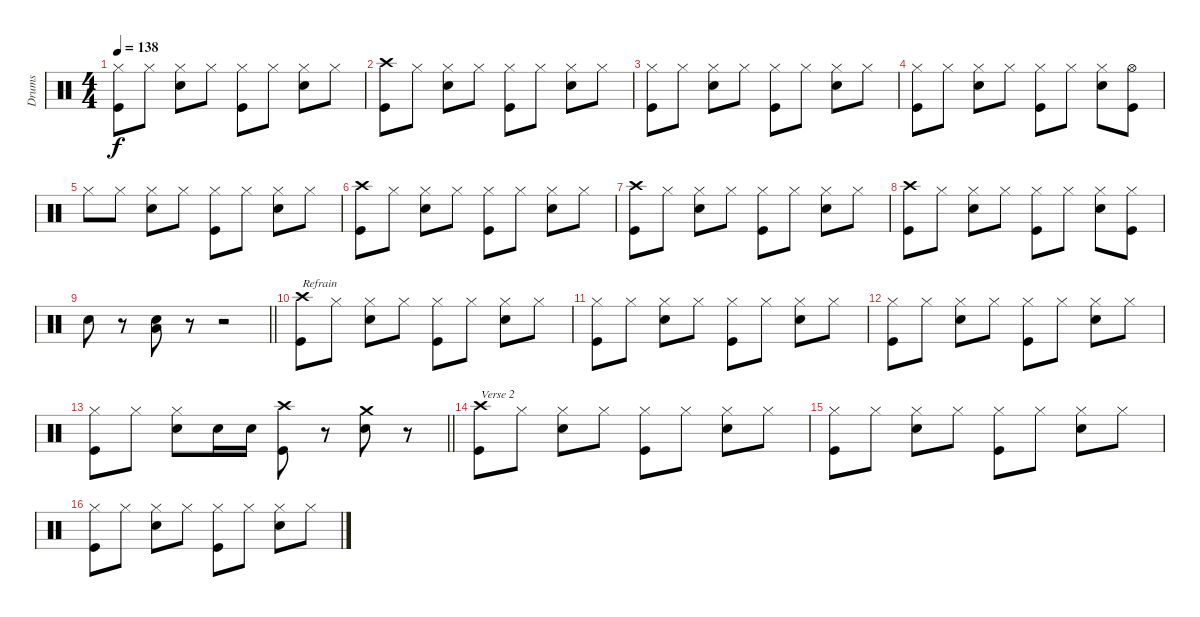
\track ("Drums" "Drums") {instrument percussion}
\staff {score}
\articulation defaults
\ts (4 4)
\tempo 138
\clef neutral
\ks c
("Kick (hit)" "Hi-Hat (closed)").8{dy f} "Hi-Hat (closed)".8 ("Electric Snare (hit)" "Hi-Hat (closed)").8 "Hi-Hat (closed)".8 ("Kick (hit)" "Hi-Hat (closed)").8 "Hi-Hat (closed)".8 ("Electric Snare (hit)" "Hi-Hat (closed)").8 "Hi-Hat (closed)".8 |
("Kick (hit)" "Crash high (hit)").8 "Hi-Hat (closed)".8 ("Electric Snare (hit)" "Hi-Hat (closed)").8 "Hi-Hat (closed)".8 ("Kick (hit)" "Hi-Hat (closed)").8 "Hi-Hat (closed)".8 ("Electric Snare (hit)" "Hi-Hat (closed)").8 "Hi-Hat (closed)".8 |
("Kick (hit)" "Hi-Hat (closed)").8 "Hi-Hat (closed)".8 ("Electric Snare (hit)" "Hi-Hat (closed)").8 "Hi-Hat (closed)".8 ("Kick (hit)" "Hi-Hat (closed)").8 "Hi-Hat (closed)".8 ("Electric Snare (hit)" "Hi-Hat (closed)").8 "Hi-Hat (closed)".8 |
("Kick (hit)" "Hi-Hat (closed)").8 "Hi-Hat (closed)".8 ("Electric Snare (hit)" "Hi-Hat (closed)").8 "Hi-Hat (closed)".8 ("Kick (hit)" "Hi-Hat (closed)").8 "Hi-Hat (closed)".8 ("Electric Snare (hit)" "Hi-Hat (closed)").8 ("Kick (hit)" "Hi-Hat (open)").8 |
"Hi-Hat (closed)".8 "Hi-Hat (closed)".8 ("Electric Snare (hit)" "Hi-Hat (closed)").8 "Hi-Hat (closed)".8 ("Kick (hit)" "Hi-Hat (closed)").8 "Hi-Hat (closed)".8 ("Electric Snare (hit)" "Hi-Hat (closed)").8 "Hi-Hat (closed)".8 |
("Kick (hit)" "Crash high (hit)").8 "Hi-Hat (closed)".8 ("Electric Snare (hit)" "Hi-Hat (closed)").8 "Hi-Hat (closed)".8 ("Kick (hit)" "Hi-Hat (closed)").8 "Hi-Hat (closed)".8 ("Electric Snare (hit)" "Hi-Hat (closed)").8 "Hi-Hat (closed)".8 |
("Kick (hit)" "Crash high (hit)").8 "Hi-Hat (closed)".8 ("Electric Snare (hit)" "Hi-Hat (closed)").8 "Hi-Hat (closed)".8 ("Kick (hit)" "Hi-Hat (closed)").8 "Hi-Hat (closed)".8 ("Electric Snare (hit)" "Hi-Hat (closed)").8 "Hi-Hat (closed)".8 |
("Kick (hit)" "Crash high (hit)").8 "Hi-Hat (closed)".8 ("Electric Snare (hit)" "Hi-Hat (closed)").8 "Hi-Hat (closed)".8 ("Kick (hit)" "Hi-Hat (closed)").8 "Hi-Hat (closed)".8 ("Electric Snare (hit)" "Hi-Hat (closed)").8 ("Kick (hit)" "Hi-Hat (closed)").8 |
\barLineRight lightlight "Electric Snare (hit)".8
r.8 ("Electric Snare (hit)" "Low Tom (hit)").8 r.8 r.2 |
("Kick (hit)" "Crash high (hit)").8{txt "Refrain"} "Hi-Hat (closed)".8 ("Electric Snare (hit)" "Hi-Hat (closed)").8 "Hi-Hat (closed)".8 ("Kick (hit)" "Hi-Hat (closed)").8 "Hi-Hat (closed)".8 ("Electric Snare (hit)" "Hi-Hat (closed)").8 "Hi-Hat (closed)".8 |
("Kick (hit)" "Hi-Hat (closed)").8 "Hi-Hat (closed)".8 ("Electric Snare (hit)" "Hi-Hat (closed)").8 "Hi-Hat (closed)".8 ("Kick (hit)" "Hi-Hat (closed)").8 "Hi-Hat (closed)".8 ("Electric Snare (hit)" "Hi-Hat (closed)").8 "Hi-Hat (closed)".8 |
("Kick (hit)" "Hi-Hat (closed)").8 "Hi-Hat (closed)".8 ("Electric Snare (hit)" "Hi-Hat (closed)").8 "Hi-Hat (closed)".8 ("Kick (hit)" "Hi-Hat (closed)").8 "Hi-Hat (closed)".8 ("Electric Snare (hit)" "Hi-Hat (closed)").8 "Hi-Hat (closed)".8 |
\barLineRight lightlight
("Kick (hit)" "Hi-Hat (closed)").8 "Hi-Hat (closed)".8 ("Electric Snare (hit)" "Hi-Hat (closed)").8 "Electric Snare (hit)".16 "Electric Snare (hit)".16 ("Kick (hit)" "Crash high (hit)").8 r.8 ("Electric Snare (hit)" "Crash medium (hit)").8 r.8 |
("Kick (hit)" "Crash high (hit)").8{txt "Verse 2"} "Hi-Hat (closed)".8 ("Electric Snare (hit)" "Hi-Hat (closed)").8 "Hi-Hat (closed)".8 ("Kick (hit)" "Hi-Hat (closed)").8 "Hi-Hat (closed)".8 ("Electric Snare (hit)" "Hi-Hat (closed)").8 "Hi-Hat (closed)".8 |
("Kick (hit)" "Hi-Hat (closed)").8 "Hi-Hat (closed)".8 ("Electric Snare (hit)" "Hi-Hat (closed)").8 "Hi-Hat (closed)".8 ("Kick (hit)" "Hi-Hat (closed)").8 "Hi-Hat (closed)".8 ("Electric Snare (hit)" "Hi-Hat (closed)").8 "Hi-Hat (closed)".8 |
("Kick (hit)" "Hi-Hat (closed)").8 "Hi-Hat (closed)".8 ("Electric Snare (hit)" "Hi-Hat (closed)").8 "Hi-Hat (closed)".8 ("Kick (hit)" "Hi-Hat (closed)").8 "Hi-Hat (closed)".8 ("Electric Snare (hit)" "Hi-Hat (closed)").8 "Hi-Hat (closed)".8
